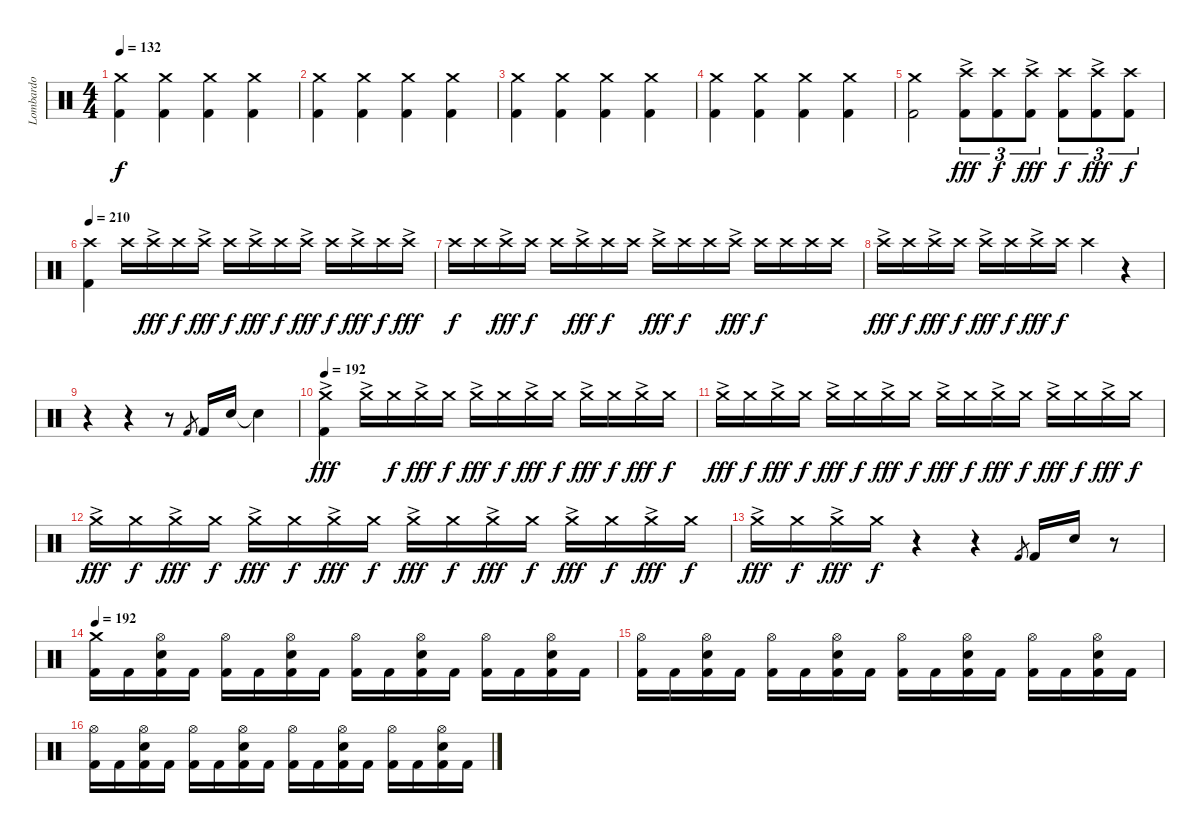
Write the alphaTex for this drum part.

\track ("Lombardo" "Lombardo") {instrument percussion}
\staff {score}
\articulation defaults
\ts (4 4)
\tempo 132
\clef neutral
\ks c
("Crash medium (hit)" "Kick (hit) 2").4{dy f} ("Crash medium (hit)" "Kick (hit) 2").4 ("Crash medium (hit)" "Kick (hit) 2").4 ("Crash medium (hit)" "Kick (hit) 2").4 |
("Crash medium (hit)" "Kick (hit) 2").4 ("Crash medium (hit)" "Kick (hit) 2").4 ("Crash medium (hit)" "Kick (hit) 2").4 ("Crash medium (hit)" "Kick (hit) 2").4 |
("Crash medium (hit)" "Kick (hit) 2").4 ("Crash medium (hit)" "Kick (hit) 2").4 ("Crash medium (hit)" "Kick (hit) 2").4 ("Crash medium (hit)" "Kick (hit) 2").4 |
("Crash medium (hit)" "Kick (hit) 2").4 ("Crash medium (hit)" "Kick (hit) 2").4 ("Crash medium (hit)" "Kick (hit) 2").4 ("Crash medium (hit)" "Kick (hit) 2").4 |
("Crash medium (hit)" "Kick (hit) 2").2 ("Crash high (hit)"{ac} "Kick (hit) 2").8{tu (3 2) dy fff} ("Crash high (hit)" "Kick (hit) 2").8{tu (3 2) dy f} ("Crash high (hit)"{ac} "Kick (hit) 2").8{tu (3 2) dy fff} ("Crash high (hit)" "Kick (hit) 2").8{tu (3 2) dy f} ("Crash high (hit)"{ac} "Kick (hit) 2").8{tu (3 2) dy fff} ("Crash high (hit)" "Kick (hit) 2").8{tu (3 2) dy f} |
\tempo 192
\tempo 210
("Crash high (hit)" "Kick (hit) 2").4 "Crash high (hit)".16 "Crash high (hit)"{ac}.16{dy fff} "Crash high (hit)".16{dy f} "Crash high (hit)"{ac}.16{dy fff} "Crash high (hit)".16{dy f} "Crash high (hit)"{ac}.16{dy fff} "Crash high (hit)".16{dy f} "Crash high (hit)"{ac}.16{dy fff} "Crash high (hit)".16{dy f} "Crash high (hit)"{ac}.16{dy fff} "Crash high (hit)".16{dy f} "Crash high (hit)"{ac}.16{dy fff} |
"Crash high (hit)".16{dy f} "Crash high (hit)".16 "Crash high (hit)"{ac}.16{dy fff} "Crash high (hit)".16{dy f} "Crash high (hit)".16 "Crash high (hit)"{ac}.16{dy fff} "Crash high (hit)".16{dy f} "Crash high (hit)".16 "Crash high (hit)"{ac}.16{dy fff} "Crash high (hit)".16{dy f} "Crash high (hit)".16 "Crash high (hit)"{ac}.16{dy fff} "Crash high (hit)".16{dy f} "Crash high (hit)".16 "Crash high (hit)".16 "Crash high (hit)".16 |
"Crash high (hit)"{ac}.16{dy fff} "Crash high (hit)".16{dy f} "Crash high (hit)"{ac}.16{dy fff} "Crash high (hit)".16{dy f} "Crash high (hit)"{ac}.16{dy fff} "Crash high (hit)".16{dy f} "Crash high (hit)"{ac}.16{dy fff} "Crash high (hit)".16{dy f} "Crash high (hit)".4 r.4 |
r.4 r.4 r.8 "Kick (hit) 2".8{gr} "Kick (hit) 2".16 "Snare (hit) 2".16 "Snare (hit)"{t}.4 |
\tempo 192
("Crash medium (hit)"{ac} "Kick (hit) 2").4{dy fff} "Crash medium (hit)"{ac}.16 "Crash medium (hit)".16{dy f} "Crash medium (hit)"{ac}.16{dy fff} "Crash medium (hit)".16{dy f} "Crash medium (hit)"{ac}.16{dy fff} "Crash medium (hit)".16{dy f} "Crash medium (hit)"{ac}.16{dy fff} "Crash medium (hit)".16{dy f} "Crash medium (hit)"{ac}.16{dy fff} "Crash medium (hit)".16{dy f} "Crash medium (hit)"{ac}.16{dy fff} "Crash medium (hit)".16{dy f} |
"Crash medium (hit)"{ac}.16{dy fff} "Crash medium (hit)".16{dy f} "Crash medium (hit)"{ac}.16{dy fff} "Crash medium (hit)".16{dy f} "Crash medium (hit)"{ac}.16{dy fff} "Crash medium (hit)".16{dy f} "Crash medium (hit)"{ac}.16{dy fff} "Crash medium (hit)".16{dy f} "Crash medium (hit)"{ac}.16{dy fff} "Crash medium (hit)".16{dy f} "Crash medium (hit)"{ac}.16{dy fff} "Crash medium (hit)".16{dy f} "Crash medium (hit)"{ac}.16{dy fff} "Crash medium (hit)".16{dy f} "Crash medium (hit)"{ac}.16{dy fff} "Crash medium (hit)".16{dy f} |
"Crash medium (hit)"{ac}.16{dy fff} "Crash medium (hit)".16{dy f} "Crash medium (hit)"{ac}.16{dy fff} "Crash medium (hit)".16{dy f} "Crash medium (hit)"{ac}.16{dy fff} "Crash medium (hit)".16{dy f} "Crash medium (hit)"{ac}.16{dy fff} "Crash medium (hit)".16{dy f} "Crash medium (hit)"{ac}.16{dy fff} "Crash medium (hit)".16{dy f} "Crash medium (hit)"{ac}.16{dy fff} "Crash medium (hit)".16{dy f} "Crash medium (hit)"{ac}.16{dy fff} "Crash medium (hit)".16{dy f} "Crash medium (hit)"{ac}.16{dy fff} "Crash medium (hit)".16{dy f} |
"Crash medium (hit)"{ac}.16{dy fff} "Crash medium (hit)".16{dy f} "Crash medium (hit)"{ac}.16{dy fff} "Crash medium (hit)".16{dy f} r.4 r.4 "Kick (hit) 2".8{gr} "Kick (hit) 2".16 "Snare (hit) 2".16 r.8 |
\tempo 192
("Crash medium (hit)" "Kick (hit) 2").16 "Kick (hit) 2".16 ("Hi-Hat (open)" "Snare (hit) 2" "Kick (hit) 2").16 "Kick (hit) 2".16 ("Hi-Hat (open)" "Kick (hit) 2").16 "Kick (hit) 2".16 ("Hi-Hat (open)" "Snare (hit) 2" "Kick (hit) 2").16 "Kick (hit) 2".16 ("Hi-Hat (open)" "Kick (hit) 2").16 "Kick (hit) 2".16 ("Hi-Hat (open)" "Snare (hit) 2" "Kick (hit) 2").16 "Kick (hit) 2".16 ("Hi-Hat (open)" "Kick (hit) 2").16 "Kick (hit) 2".16 ("Hi-Hat (open)" "Snare (hit) 2" "Kick (hit) 2").16 "Kick (hit) 2".16 |
("Hi-Hat (open)" "Kick (hit) 2").16 "Kick (hit) 2".16 ("Hi-Hat (open)" "Snare (hit) 2" "Kick (hit) 2").16 "Kick (hit) 2".16 ("Hi-Hat (open)" "Kick (hit) 2").16 "Kick (hit) 2".16 ("Hi-Hat (open)" "Snare (hit) 2" "Kick (hit) 2").16 "Kick (hit) 2".16 ("Hi-Hat (open)" "Kick (hit) 2").16 "Kick (hit) 2".16 ("Hi-Hat (open)" "Snare (hit) 2" "Kick (hit) 2").16 "Kick (hit) 2".16 ("Hi-Hat (open)" "Kick (hit) 2").16 "Kick (hit) 2".16 ("Hi-Hat (open)" "Snare (hit) 2" "Kick (hit) 2").16 "Kick (hit) 2".16 |
("Hi-Hat (open)" "Kick (hit) 2").16 "Kick (hit) 2".16 ("Hi-Hat (open)" "Snare (hit) 2" "Kick (hit) 2").16 "Kick (hit) 2".16 ("Hi-Hat (open)" "Kick (hit) 2").16 "Kick (hit) 2".16 ("Hi-Hat (open)" "Snare (hit) 2" "Kick (hit) 2").16 "Kick (hit) 2".16 ("Hi-Hat (open)" "Kick (hit) 2").16 "Kick (hit) 2".16 ("Hi-Hat (open)" "Snare (hit) 2" "Kick (hit) 2").16 "Kick (hit) 2".16 ("Hi-Hat (open)" "Kick (hit) 2").16 "Kick (hit) 2".16 ("Hi-Hat (open)" "Snare (hit) 2" "Kick (hit) 2").16 "Kick (hit) 2".16
